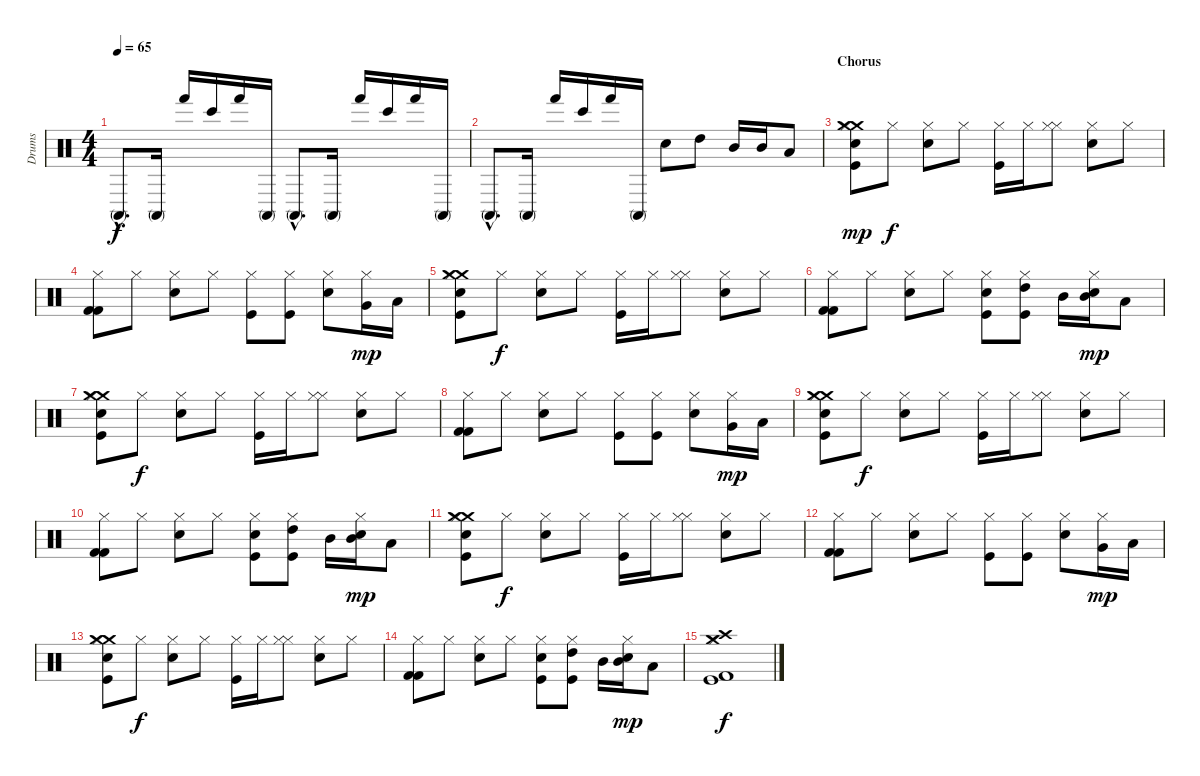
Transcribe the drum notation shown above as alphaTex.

\track ("Drums" "Drums") {instrument percussion}
\staff {score}
\articulation defaults
\ts (4 4)
\tempo 65
\clef neutral
\ks c "Conga high (mute)"{hac}.8{d dy f} "Conga high (mute)".16 "Hand (hit)".16 "Bongo High (hit)".16 "Hand (hit)".16 "Conga high (mute)".16 "Conga high (mute)"{hac}.8{d} "Conga high (mute)".16 "Hand (hit)".16 "Bongo High (hit)".16 "Hand (hit)".16 "Conga high (mute)".16
|
"Conga high (mute)"{hac}.8{d} "Conga high (mute)".16 "Hand (hit)".16 "Bongo High (hit)".16 "Hand (hit)".16 "Conga high (mute)".16 "Snare (hit) 2".8 "High Tom (hit)".8 "Mid Tom (hit)".16 "Mid Tom (hit)".16 "Low Tom (hit)".8 |
\section ("" "Chorus")
("Kick (hit)" "Crash medium (hit)" "Electric Snare (hit)" "Crash medium (hit)" "Hi-Hat (closed)").8{dy mp} "Hi-Hat (closed)".8{dy f} ("Snare (hit) 2" "Hi-Hat (closed)").8 "Hi-Hat (closed)".8 ("Kick (hit)" "Hi-Hat (closed)").16 "Hi-Hat (closed)".16 ("Hi-Hat (closed)" "Hi-Hat (closed)").8 ("Snare (hit) 2" "Hi-Hat (closed)").8 "Hi-Hat (closed)".8 |
("Hi-Hat (closed)" "Kick (hit) 2" "Kick (hit) 2").8 "Hi-Hat (closed)".8 ("Snare (hit) 2" "Hi-Hat (closed)").8 "Hi-Hat (closed)".8 ("Kick (hit)" "Hi-Hat (closed)").8 ("Kick (hit)" "Hi-Hat (closed)").8 ("Snare (hit) 2" "Hi-Hat (closed)").8 ("Very Low Tom (hit)" "Hi-Hat (closed)").16{dy mp} "Low Floor Tom (hit)".16 |
("Kick (hit)" "Crash medium (hit)" "Electric Snare (hit)" "Crash medium (hit)" "Hi-Hat (closed)").8 "Hi-Hat (closed)".8{dy f} ("Snare (hit) 2" "Hi-Hat (closed)").8 "Hi-Hat (closed)".8 ("Kick (hit)" "Hi-Hat (closed)").16 "Hi-Hat (closed)".16 ("Hi-Hat (closed)" "Hi-Hat (closed)").8 ("Snare (hit) 2" "Hi-Hat (closed)").8 "Hi-Hat (closed)".8 |
("Hi-Hat (closed)" "Kick (hit) 2" "Kick (hit) 2").8 "Hi-Hat (closed)".8 ("Snare (hit) 2" "Hi-Hat (closed)").8 "Hi-Hat (closed)".8 ("Kick (hit)" "Hi-Hat (closed)" "Snare (hit) 2").8 ("Kick (hit)" "Hi-Hat (closed)" "High Tom (hit)").8 "Mid Tom (hit)".16 ("Mid Tom (hit)" "Hi-Hat (closed)" "Snare (hit) 2").16{dy mp} "Low Tom (hit)".8 |
("Kick (hit)" "Crash medium (hit)" "Electric Snare (hit)" "Crash medium (hit)" "Hi-Hat (closed)").8 "Hi-Hat (closed)".8{dy f} ("Snare (hit) 2" "Hi-Hat (closed)").8 "Hi-Hat (closed)".8 ("Kick (hit)" "Hi-Hat (closed)").16 "Hi-Hat (closed)".16 ("Hi-Hat (closed)" "Hi-Hat (closed)").8 ("Snare (hit) 2" "Hi-Hat (closed)").8 "Hi-Hat (closed)".8 |
("Hi-Hat (closed)" "Kick (hit) 2" "Kick (hit) 2").8 "Hi-Hat (closed)".8 ("Snare (hit) 2" "Hi-Hat (closed)").8 "Hi-Hat (closed)".8 ("Kick (hit)" "Hi-Hat (closed)").8 ("Kick (hit)" "Hi-Hat (closed)").8 ("Snare (hit) 2" "Hi-Hat (closed)").8 ("Very Low Tom (hit)" "Hi-Hat (closed)").16{dy mp} "Low Floor Tom (hit)".16 |
("Kick (hit)" "Crash medium (hit)" "Electric Snare (hit)" "Crash medium (hit)" "Hi-Hat (closed)").8 "Hi-Hat (closed)".8{dy f} ("Snare (hit) 2" "Hi-Hat (closed)").8 "Hi-Hat (closed)".8 ("Kick (hit)" "Hi-Hat (closed)").16 "Hi-Hat (closed)".16 ("Hi-Hat (closed)" "Hi-Hat (closed)").8 ("Snare (hit) 2" "Hi-Hat (closed)").8 "Hi-Hat (closed)".8 |
("Hi-Hat (closed)" "Kick (hit) 2" "Kick (hit) 2").8 "Hi-Hat (closed)".8 ("Snare (hit) 2" "Hi-Hat (closed)").8 "Hi-Hat (closed)".8 ("Kick (hit)" "Hi-Hat (closed)" "Snare (hit) 2").8 ("Kick (hit)" "Hi-Hat (closed)" "High Tom (hit)").8 "Mid Tom (hit)".16 ("Mid Tom (hit)" "Hi-Hat (closed)" "Snare (hit) 2").16{dy mp} "Low Tom (hit)".8 |
("Kick (hit)" "Crash medium (hit)" "Electric Snare (hit)" "Crash medium (hit)" "Hi-Hat (closed)").8 "Hi-Hat (closed)".8{dy f} ("Snare (hit) 2" "Hi-Hat (closed)").8 "Hi-Hat (closed)".8 ("Kick (hit)" "Hi-Hat (closed)").16 "Hi-Hat (closed)".16 ("Hi-Hat (closed)" "Hi-Hat (closed)").8 ("Snare (hit) 2" "Hi-Hat (closed)").8 "Hi-Hat (closed)".8 |
("Hi-Hat (closed)" "Kick (hit) 2" "Kick (hit) 2").8 "Hi-Hat (closed)".8 ("Snare (hit) 2" "Hi-Hat (closed)").8 "Hi-Hat (closed)".8 ("Kick (hit)" "Hi-Hat (closed)").8 ("Kick (hit)" "Hi-Hat (closed)").8 ("Snare (hit) 2" "Hi-Hat (closed)").8 ("Very Low Tom (hit)" "Hi-Hat (closed)").16{dy mp} "Low Floor Tom (hit)".16 |
("Kick (hit)" "Crash medium (hit)" "Electric Snare (hit)" "Crash medium (hit)" "Hi-Hat (closed)").8 "Hi-Hat (closed)".8{dy f} ("Snare (hit) 2" "Hi-Hat (closed)").8 "Hi-Hat (closed)".8 ("Kick (hit)" "Hi-Hat (closed)").16 "Hi-Hat (closed)".16 ("Hi-Hat (closed)" "Hi-Hat (closed)").8 ("Snare (hit) 2" "Hi-Hat (closed)").8 "Hi-Hat (closed)".8 |
("Hi-Hat (closed)" "Kick (hit) 2" "Kick (hit) 2").8 "Hi-Hat (closed)".8 ("Snare (hit) 2" "Hi-Hat (closed)").8 "Hi-Hat (closed)".8 ("Kick (hit)" "Hi-Hat (closed)" "Snare (hit) 2").8 ("Kick (hit)" "Hi-Hat (closed)" "High Tom (hit)").8 "Mid Tom (hit)".16 ("Mid Tom (hit)" "Hi-Hat (closed)" "Snare (hit) 2").16{dy mp} "Low Tom (hit)".8 |
("Crash high (hit)" "Crash medium (hit)" "Kick (hit)" "Hi-Hat (closed)" "Kick (hit) 2").1{dy f}
